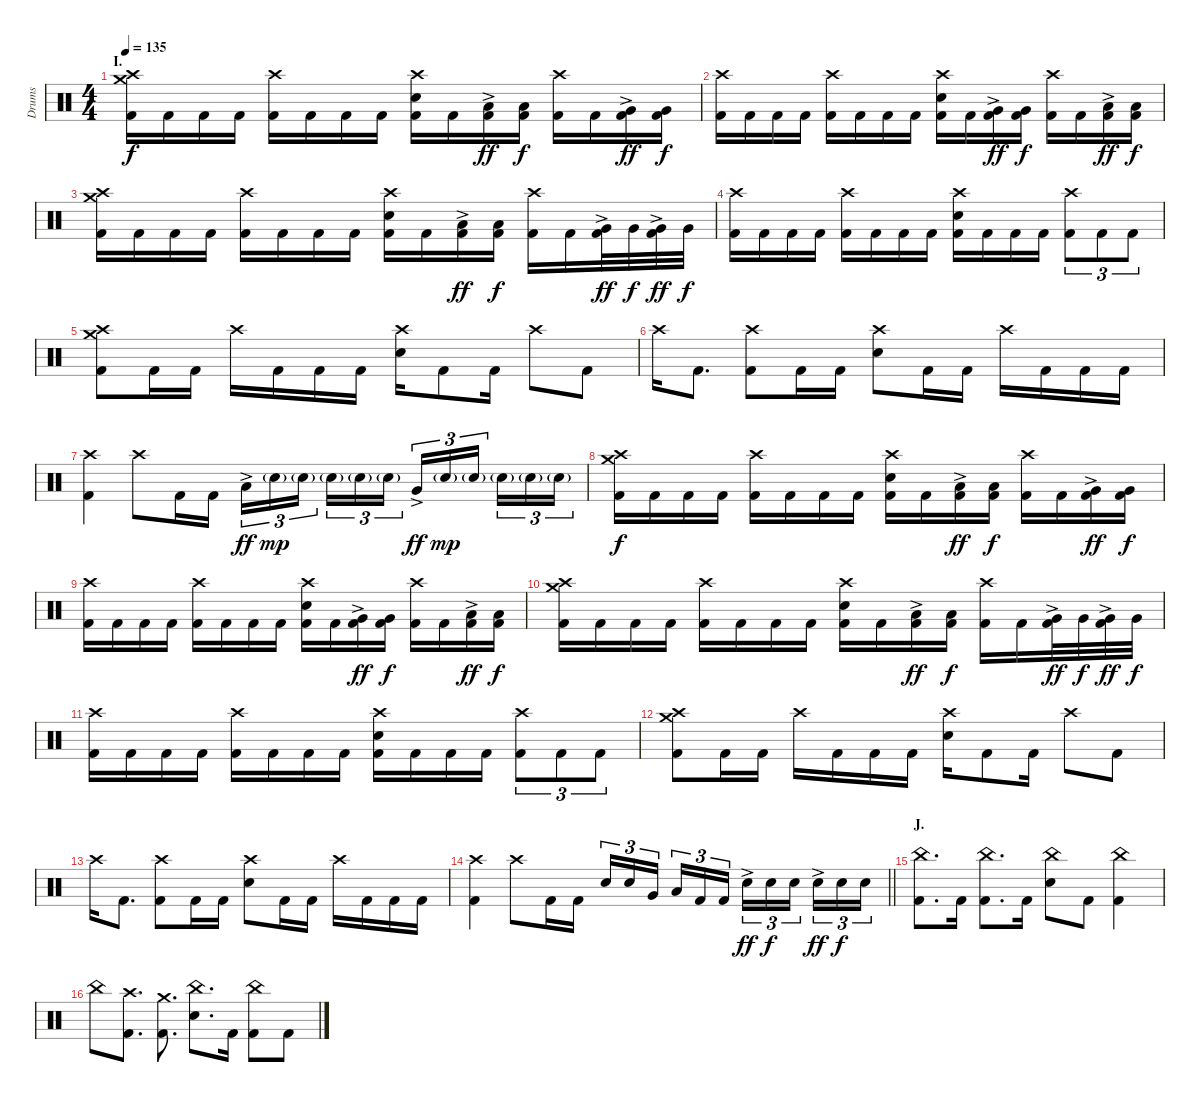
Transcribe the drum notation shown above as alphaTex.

\track ("Drums" "Drums") {instrument percussion}
\staff {score}
\articulation defaults
\ts (4 4)
\section ("" "I.")
\tempo 135
\clef neutral
\ks c
("Crash medium (hit)" "Crash high (hit)" "Kick (hit) 2").16{dy f} "Kick (hit) 2".16 "Kick (hit) 2".16 "Kick (hit) 2".16 ("Crash high (hit)" "Kick (hit) 2").16 "Kick (hit) 2".16 "Kick (hit) 2".16 "Kick (hit) 2".16 ("Crash high (hit)" "Electric Snare (hit)" "Kick (hit) 2").16 "Kick (hit) 2".16 ("Low Tom (hit)"{ac} "Kick (hit) 2").16{dy ff} ("Low Tom (hit)" "Kick (hit) 2").16{dy f} ("Crash high (hit)" "Kick (hit) 2").16 "Kick (hit) 2".16 ("Very Low Tom (hit)"{ac} "Kick (hit) 2").16{dy ff} ("Very Low Tom (hit)" "Kick (hit) 2").16{dy f} |
("Crash high (hit)" "Kick (hit) 2").16 "Kick (hit) 2".16 "Kick (hit) 2".16 "Kick (hit) 2".16 ("Crash high (hit)" "Kick (hit) 2").16 "Kick (hit) 2".16 "Kick (hit) 2".16 "Kick (hit) 2".16 ("Crash high (hit)" "Electric Snare (hit)" "Kick (hit) 2").16 "Kick (hit) 2".16 ("Very Low Tom (hit)"{ac} "Kick (hit) 2").16{dy ff} ("Very Low Tom (hit)" "Kick (hit) 2").16{dy f} ("Crash high (hit)" "Kick (hit) 2").16 "Kick (hit) 2".16 ("Low Floor Tom (hit)"{ac} "Kick (hit) 2").16{dy ff} ("Low Floor Tom (hit)" "Kick (hit) 2").16{dy f} |
("Crash medium (hit)" "Crash high (hit)" "Kick (hit) 2").16 "Kick (hit) 2".16 "Kick (hit) 2".16 "Kick (hit) 2".16 ("Crash high (hit)" "Kick (hit) 2").16 "Kick (hit) 2".16 "Kick (hit) 2".16 "Kick (hit) 2".16 ("Crash high (hit)" "Electric Snare (hit)" "Kick (hit) 2").16 "Kick (hit) 2".16 ("Low Tom (hit)"{ac} "Kick (hit) 2").16{dy ff} ("Low Tom (hit)" "Kick (hit) 2").16{dy f} ("Crash high (hit)" "Kick (hit) 2").16 "Kick (hit) 2".16 ("Very Low Tom (hit)"{ac} "Kick (hit) 2").32{dy ff} "Very Low Tom (hit)".32{dy f} ("Very Low Tom (hit)"{ac} "Kick (hit) 2").32{dy ff} "Very Low Tom (hit)".32{dy f} |
("Crash high (hit)" "Kick (hit) 2").16 "Kick (hit) 2".16 "Kick (hit) 2".16 "Kick (hit) 2".16 ("Crash high (hit)" "Kick (hit) 2").16 "Kick (hit) 2".16 "Kick (hit) 2".16 "Kick (hit) 2".16 ("Crash high (hit)" "Electric Snare (hit)" "Kick (hit) 2").16 "Kick (hit) 2".16 "Kick (hit) 2".16 "Kick (hit) 2".16 ("Crash high (hit)" "Kick (hit) 2").8{tu (3 2)} "Kick (hit) 2".8{tu (3 2)} "Kick (hit) 2".8{tu (3 2)} |
("Crash medium (hit)" "Crash high (hit)" "Kick (hit) 2").8 "Kick (hit) 2".16 "Kick (hit) 2".16 "Crash high (hit)".16 "Kick (hit) 2".16 "Kick (hit) 2".16 "Kick (hit) 2".16 ("Crash high (hit)" "Electric Snare (hit)").16 "Kick (hit) 2".8 "Kick (hit) 2".16 "Crash high (hit)".8 "Kick (hit) 2".8 |
"Crash high (hit)".16 "Kick (hit) 2".8{d} ("Crash high (hit)" "Kick (hit) 2").8 "Kick (hit) 2".16 "Kick (hit) 2".16 ("Crash high (hit)" "Electric Snare (hit)").8 "Kick (hit) 2".16 "Kick (hit) 2".16 "Crash high (hit)".16 "Kick (hit) 2".16 "Kick (hit) 2".16 "Kick (hit) 2".16 |
("Crash high (hit)" "Kick (hit) 2").4 "Crash high (hit)".8 "Kick (hit) 2".16 "Kick (hit) 2".16 "Low Tom (hit)"{ac}.16{tu (3 2) dy ff} "Electric Snare (hit)"{g}.16{tu (3 2) dy mp} "Electric Snare (hit)"{g}.16{tu (3 2) beam splitsecondary} "Electric Snare (hit)"{g}.16{tu (3 2)} "Electric Snare (hit)"{g}.16{tu (3 2)} "Electric Snare (hit)"{g}.16{tu (3 2)} "Very Low Tom (hit)"{ac}.16{tu (3 2) dy ff} "Electric Snare (hit)"{g}.16{tu (3 2) dy mp} "Electric Snare (hit)"{g}.16{tu (3 2) beam splitsecondary} "Electric Snare (hit)"{g}.16{tu (3 2)} "Electric Snare (hit)"{g}.16{tu (3 2)} "Electric Snare (hit)"{g}.16{tu (3 2)} |
("Crash medium (hit)" "Crash high (hit)" "Kick (hit) 2").16{dy f} "Kick (hit) 2".16 "Kick (hit) 2".16 "Kick (hit) 2".16 ("Crash high (hit)" "Kick (hit) 2").16 "Kick (hit) 2".16 "Kick (hit) 2".16 "Kick (hit) 2".16 ("Crash high (hit)" "Electric Snare (hit)" "Kick (hit) 2").16 "Kick (hit) 2".16 ("Low Tom (hit)"{ac} "Kick (hit) 2").16{dy ff} ("Low Tom (hit)" "Kick (hit) 2").16{dy f} ("Crash high (hit)" "Kick (hit) 2").16 "Kick (hit) 2".16 ("Very Low Tom (hit)"{ac} "Kick (hit) 2").16{dy ff} ("Very Low Tom (hit)" "Kick (hit) 2").16{dy f} |
("Crash high (hit)" "Kick (hit) 2").16 "Kick (hit) 2".16 "Kick (hit) 2".16 "Kick (hit) 2".16 ("Crash high (hit)" "Kick (hit) 2").16 "Kick (hit) 2".16 "Kick (hit) 2".16 "Kick (hit) 2".16 ("Crash high (hit)" "Electric Snare (hit)" "Kick (hit) 2").16 "Kick (hit) 2".16 ("Very Low Tom (hit)"{ac} "Kick (hit) 2").16{dy ff} ("Very Low Tom (hit)" "Kick (hit) 2").16{dy f} ("Crash high (hit)" "Kick (hit) 2").16 "Kick (hit) 2".16 ("Low Floor Tom (hit)"{ac} "Kick (hit) 2").16{dy ff} ("Low Floor Tom (hit)" "Kick (hit) 2").16{dy f} |
("Crash medium (hit)" "Crash high (hit)" "Kick (hit) 2").16 "Kick (hit) 2".16 "Kick (hit) 2".16 "Kick (hit) 2".16 ("Crash high (hit)" "Kick (hit) 2").16 "Kick (hit) 2".16 "Kick (hit) 2".16 "Kick (hit) 2".16 ("Crash high (hit)" "Electric Snare (hit)" "Kick (hit) 2").16 "Kick (hit) 2".16 ("Low Tom (hit)"{ac} "Kick (hit) 2").16{dy ff} ("Low Tom (hit)" "Kick (hit) 2").16{dy f} ("Crash high (hit)" "Kick (hit) 2").16 "Kick (hit) 2".16 ("Very Low Tom (hit)"{ac} "Kick (hit) 2").32{dy ff} "Very Low Tom (hit)".32{dy f} ("Very Low Tom (hit)"{ac} "Kick (hit) 2").32{dy ff} "Very Low Tom (hit)".32{dy f} |
("Crash high (hit)" "Kick (hit) 2").16 "Kick (hit) 2".16 "Kick (hit) 2".16 "Kick (hit) 2".16 ("Crash high (hit)" "Kick (hit) 2").16 "Kick (hit) 2".16 "Kick (hit) 2".16 "Kick (hit) 2".16 ("Crash high (hit)" "Electric Snare (hit)" "Kick (hit) 2").16 "Kick (hit) 2".16 "Kick (hit) 2".16 "Kick (hit) 2".16 ("Crash high (hit)" "Kick (hit) 2").8{tu (3 2)} "Kick (hit) 2".8{tu (3 2)} "Kick (hit) 2".8{tu (3 2)} |
("Crash medium (hit)" "Crash high (hit)" "Kick (hit) 2").8 "Kick (hit) 2".16 "Kick (hit) 2".16 "Crash high (hit)".16 "Kick (hit) 2".16 "Kick (hit) 2".16 "Kick (hit) 2".16 ("Crash high (hit)" "Electric Snare (hit)").16 "Kick (hit) 2".8 "Kick (hit) 2".16 "Crash high (hit)".8 "Kick (hit) 2".8 |
"Crash high (hit)".16 "Kick (hit) 2".8{d} ("Crash high (hit)" "Kick (hit) 2").8 "Kick (hit) 2".16 "Kick (hit) 2".16 ("Crash high (hit)" "Electric Snare (hit)").8 "Kick (hit) 2".16 "Kick (hit) 2".16 "Crash high (hit)".16 "Kick (hit) 2".16 "Kick (hit) 2".16 "Kick (hit) 2".16 |
\barLineRight lightlight
("Crash high (hit)" "Kick (hit) 2").4 "Crash high (hit)".8 "Kick (hit) 2".16 "Kick (hit) 2".16 "Electric Snare (hit)".16{tu (3 2)} "Electric Snare (hit)".16{tu (3 2)} "Very Low Tom (hit)".16{tu (3 2) beam splitsecondary} "Low Tom (hit)".16{tu (3 2)} "Kick (hit) 2".16{tu (3 2)} "Kick (hit) 2".16{tu (3 2)} "Electric Snare (hit)"{ac}.16{tu (3 2) dy ff} "Electric Snare (hit)".16{tu (3 2) dy f} "Electric Snare (hit)".16{tu (3 2) beam splitsecondary} "Electric Snare (hit)"{ac}.16{tu (3 2) dy ff} "Electric Snare (hit)".16{tu (3 2) dy f} "Electric Snare (hit)".16{tu (3 2)} |
\section ("" "J.")
("China (hit)" "Kick (hit) 2").8{d} "Kick (hit) 2".16 ("China (hit)" "Kick (hit) 2").8{d} "Kick (hit) 2".16 ("China (hit)" "Electric Snare (hit)").8 "Kick (hit) 2".8 ("China (hit)" "Kick (hit) 2").4 |
"China (hit)".8 ("Crash high (hit)" "Kick (hit) 2").8{d} ("Crash medium (hit)" "Kick (hit) 2").8{d} ("China (hit)" "Electric Snare (hit)").8{d} "Kick (hit) 2".16 ("China (hit)" "Kick (hit) 2").8 "Kick (hit) 2".8
